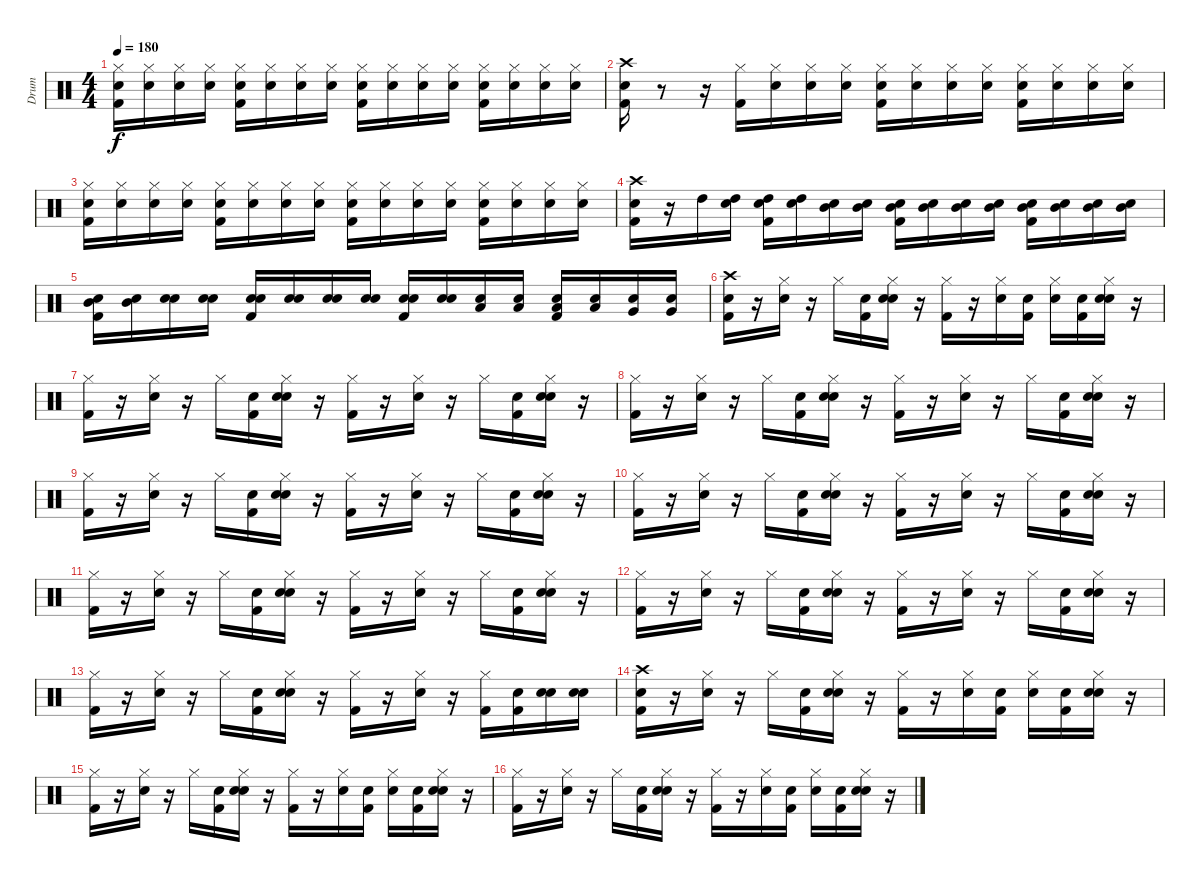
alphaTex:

\track ("Drum" "Drum") {instrument percussion}
\staff {score}
\articulation defaults
\ts (4 4)
\tempo 180
\clef neutral
\ks c
("Snare (hit)" "Kick (hit) 2" "Hi-Hat (closed)").16{dy f} ("Snare (hit)" "Hi-Hat (closed)").16 ("Snare (hit)" "Hi-Hat (closed)").16 ("Snare (hit)" "Hi-Hat (closed)").16 ("Snare (hit)" "Kick (hit) 2" "Hi-Hat (closed)").16 ("Snare (hit)" "Hi-Hat (closed)").16 ("Snare (hit)" "Hi-Hat (closed)").16 ("Snare (hit)" "Hi-Hat (closed)").16 ("Snare (hit)" "Kick (hit) 2" "Hi-Hat (closed)").16 ("Snare (hit)" "Hi-Hat (closed)").16 ("Snare (hit)" "Hi-Hat (closed)").16 ("Snare (hit)" "Hi-Hat (closed)").16 ("Snare (hit)" "Kick (hit) 2" "Hi-Hat (closed)").16 ("Snare (hit)" "Hi-Hat (closed)").16 ("Snare (hit)" "Hi-Hat (closed)").16 ("Snare (hit)" "Hi-Hat (closed)").16 |
("Snare (hit)" "Crash high (hit)" "Kick (hit) 2").16 r.8 r.16 ("Hi-Hat (closed)" "Kick (hit) 2").16 ("Snare (hit)" "Hi-Hat (closed)").16 ("Snare (hit)" "Hi-Hat (closed)").16 ("Snare (hit)" "Hi-Hat (closed)").16 ("Snare (hit)" "Hi-Hat (closed)" "Kick (hit) 2").16 ("Snare (hit)" "Hi-Hat (closed)").16 ("Snare (hit)" "Hi-Hat (closed)").16 ("Snare (hit)" "Hi-Hat (closed)").16 ("Snare (hit)" "Hi-Hat (closed)" "Kick (hit) 2").16 ("Snare (hit)" "Hi-Hat (closed)").16 ("Snare (hit)" "Hi-Hat (closed)").16 ("Snare (hit)" "Hi-Hat (closed)").16 |
("Snare (hit)" "Kick (hit) 2" "Hi-Hat (closed)").16 ("Snare (hit)" "Hi-Hat (closed)").16 ("Snare (hit)" "Hi-Hat (closed)").16 ("Snare (hit)" "Hi-Hat (closed)").16 ("Snare (hit)" "Kick (hit) 2" "Hi-Hat (closed)").16 ("Snare (hit)" "Hi-Hat (closed)").16 ("Snare (hit)" "Hi-Hat (closed)").16 ("Snare (hit)" "Hi-Hat (closed)").16 ("Snare (hit)" "Kick (hit) 2" "Hi-Hat (closed)").16 ("Snare (hit)" "Hi-Hat (closed)").16 ("Snare (hit)" "Hi-Hat (closed)").16 ("Snare (hit)" "Hi-Hat (closed)").16 ("Snare (hit)" "Kick (hit) 2" "Hi-Hat (closed)").16 ("Snare (hit)" "Hi-Hat (closed)").16 ("Snare (hit)" "Hi-Hat (closed)").16 ("Snare (hit)" "Hi-Hat (closed)").16 |
("Snare (hit)" "Crash high (hit)" "Kick (hit) 2").16 r.16 "High Tom (hit)".16 ("Snare (hit)" "High Tom (hit)").16 ("Snare (hit)" "High Tom (hit)" "Kick (hit) 2").16 ("Snare (hit)" "High Tom (hit)").16 ("Snare (hit)" "Mid Tom (hit)").16 ("Snare (hit)" "Mid Tom (hit)").16 ("Snare (hit)" "Mid Tom (hit)" "Kick (hit) 2").16 ("Snare (hit)" "Mid Tom (hit)").16 ("Snare (hit)" "Mid Tom (hit)").16 ("Snare (hit)" "Mid Tom (hit)").16 ("Snare (hit)" "Mid Tom (hit)" "Kick (hit) 2").16 ("Snare (hit)" "Mid Tom (hit)").16 ("Snare (hit)" "Mid Tom (hit)").16 ("Snare (hit)" "Mid Tom (hit)").16 |
("Snare (hit)" "Mid Tom (hit)" "Kick (hit) 2").16 ("Snare (hit)" "Mid Tom (hit)").16 ("Snare (hit)" "Snare (hit) 2").16 ("Snare (hit)" "Snare (hit) 2").16 ("Snare (hit)" "Snare (hit) 2" "Kick (hit) 2").16 ("Snare (hit)" "Snare (hit) 2").16 ("Snare (hit)" "Snare (hit) 2").16 ("Snare (hit)" "Snare (hit) 2").16 ("Snare (hit)" "Snare (hit) 2" "Kick (hit) 2").16 ("Snare (hit)" "Snare (hit) 2").16 ("Snare (hit)" "Low Tom (hit)").16 ("Snare (hit)" "Low Tom (hit)").16 ("Snare (hit)" "Low Tom (hit)" "Kick (hit) 2").16 ("Snare (hit)" "Low Tom (hit)").16 ("Snare (hit)" "Very Low Tom (hit)").16 ("Snare (hit)" "Very Low Tom (hit)").16 |
("Snare (hit)" "Kick (hit) 2" "Crash high (hit)").16 r.16 ("Snare (hit) 2" "Hi-Hat (closed)").16 r.16 "Hi-Hat (closed)".16 ("Snare (hit)" "Kick (hit) 2").16 ("Snare (hit)" "Snare (hit) 2" "Hi-Hat (closed)").16 r.16 ("Kick (hit) 2" "Hi-Hat (closed)").16 r.16 ("Snare (hit) 2" "Hi-Hat (closed)").16 ("Snare (hit)" "Kick (hit) 2").16 ("Snare (hit)" "Hi-Hat (closed)").16 ("Snare (hit)" "Kick (hit) 2").16 ("Snare (hit)" "Snare (hit) 2" "Hi-Hat (closed)").16 r.16 |
("Kick (hit) 2" "Hi-Hat (closed)").16 r.16 ("Snare (hit) 2" "Hi-Hat (closed)").16 r.16 "Hi-Hat (closed)".16 ("Snare (hit)" "Kick (hit) 2").16 ("Snare (hit)" "Snare (hit) 2" "Hi-Hat (closed)").16 r.16 ("Kick (hit) 2" "Hi-Hat (closed)").16 r.16 ("Snare (hit) 2" "Hi-Hat (closed)").16 r.16 "Hi-Hat (closed)".16 ("Snare (hit)" "Kick (hit) 2").16 ("Snare (hit)" "Snare (hit) 2" "Hi-Hat (closed)").16 r.16 |
("Kick (hit) 2" "Hi-Hat (closed)").16 r.16 ("Snare (hit) 2" "Hi-Hat (closed)").16 r.16 "Hi-Hat (closed)".16 ("Snare (hit)" "Kick (hit) 2").16 ("Snare (hit)" "Snare (hit) 2" "Hi-Hat (closed)").16 r.16 ("Kick (hit) 2" "Hi-Hat (closed)").16 r.16 ("Snare (hit) 2" "Hi-Hat (closed)").16 r.16 "Hi-Hat (closed)".16 ("Snare (hit)" "Kick (hit) 2").16 ("Snare (hit)" "Snare (hit) 2" "Hi-Hat (closed)").16 r.16 |
("Kick (hit) 2" "Hi-Hat (closed)").16 r.16 ("Snare (hit) 2" "Hi-Hat (closed)").16 r.16 "Hi-Hat (closed)".16 ("Snare (hit)" "Kick (hit) 2").16 ("Snare (hit)" "Snare (hit) 2" "Hi-Hat (closed)").16 r.16 ("Kick (hit) 2" "Hi-Hat (closed)").16 r.16 ("Snare (hit) 2" "Hi-Hat (closed)").16 r.16 "Hi-Hat (closed)".16 ("Snare (hit)" "Kick (hit) 2").16 ("Snare (hit)" "Snare (hit) 2" "Hi-Hat (closed)").16 r.16 |
("Kick (hit) 2" "Hi-Hat (closed)").16 r.16 ("Snare (hit) 2" "Hi-Hat (closed)").16 r.16 "Hi-Hat (closed)".16 ("Snare (hit)" "Kick (hit) 2").16 ("Snare (hit)" "Snare (hit) 2" "Hi-Hat (closed)").16 r.16 ("Kick (hit) 2" "Hi-Hat (closed)").16 r.16 ("Snare (hit) 2" "Hi-Hat (closed)").16 r.16 "Hi-Hat (closed)".16 ("Snare (hit)" "Kick (hit) 2").16 ("Snare (hit)" "Snare (hit) 2" "Hi-Hat (closed)").16 r.16 |
("Kick (hit) 2" "Hi-Hat (closed)").16 r.16 ("Snare (hit) 2" "Hi-Hat (closed)").16 r.16 "Hi-Hat (closed)".16 ("Snare (hit)" "Kick (hit) 2").16 ("Snare (hit)" "Snare (hit) 2" "Hi-Hat (closed)").16 r.16 ("Kick (hit) 2" "Hi-Hat (closed)").16 r.16 ("Snare (hit) 2" "Hi-Hat (closed)").16 r.16 "Hi-Hat (closed)".16 ("Snare (hit)" "Kick (hit) 2").16 ("Snare (hit)" "Snare (hit) 2" "Hi-Hat (closed)").16 r.16 |
("Kick (hit) 2" "Hi-Hat (closed)").16 r.16 ("Snare (hit) 2" "Hi-Hat (closed)").16 r.16 "Hi-Hat (closed)".16 ("Snare (hit)" "Kick (hit) 2").16 ("Snare (hit)" "Snare (hit) 2" "Hi-Hat (closed)").16 r.16 ("Kick (hit) 2" "Hi-Hat (closed)").16 r.16 ("Snare (hit) 2" "Hi-Hat (closed)").16 r.16 "Hi-Hat (closed)".16 ("Snare (hit)" "Kick (hit) 2").16 ("Snare (hit)" "Snare (hit) 2" "Hi-Hat (closed)").16 r.16 |
("Kick (hit) 2" "Hi-Hat (closed)").16 r.16 ("Snare (hit) 2" "Hi-Hat (closed)").16 r.16 "Hi-Hat (closed)".16 ("Snare (hit)" "Kick (hit) 2").16 ("Snare (hit)" "Snare (hit) 2" "Hi-Hat (closed)").16 r.16 ("Kick (hit) 2" "Hi-Hat (closed)").16 r.16 ("Snare (hit) 2" "Hi-Hat (closed)").16 r.16 ("Kick (hit) 2" "Hi-Hat (closed)").16 ("Snare (hit)" "Kick (hit) 2").16 ("Snare (hit)" "Snare (hit) 2").16 ("Snare (hit)" "Snare (hit) 2").16 |
("Snare (hit)" "Kick (hit) 2" "Crash high (hit)").16 r.16 ("Snare (hit) 2" "Hi-Hat (closed)").16 r.16 "Hi-Hat (closed)".16 ("Snare (hit)" "Kick (hit) 2").16 ("Snare (hit)" "Snare (hit) 2" "Hi-Hat (closed)").16 r.16 ("Kick (hit) 2" "Hi-Hat (closed)").16 r.16 ("Hi-Hat (closed)" "Snare (hit) 2").16 ("Snare (hit)" "Kick (hit) 2").16 ("Snare (hit)" "Hi-Hat (closed)").16 ("Snare (hit)" "Kick (hit) 2").16 ("Snare (hit)" "Snare (hit) 2" "Hi-Hat (closed)").16 r.16 |
("Kick (hit) 2" "Hi-Hat (closed)").16 r.16 ("Snare (hit) 2" "Hi-Hat (closed)").16 r.16 "Hi-Hat (closed)".16 ("Snare (hit)" "Kick (hit) 2").16 ("Snare (hit)" "Snare (hit) 2" "Hi-Hat (closed)").16 r.16 ("Kick (hit) 2" "Hi-Hat (closed)").16 r.16 ("Snare (hit) 2" "Hi-Hat (closed)").16 ("Snare (hit)" "Kick (hit) 2").16 ("Snare (hit)" "Hi-Hat (closed)").16 ("Snare (hit)" "Kick (hit) 2").16 ("Snare (hit)" "Snare (hit) 2" "Hi-Hat (closed)").16 r.16 |
("Kick (hit) 2" "Hi-Hat (closed)").16 r.16 ("Snare (hit) 2" "Hi-Hat (closed)").16 r.16 "Hi-Hat (closed)".16 ("Snare (hit)" "Kick (hit) 2").16 ("Snare (hit)" "Snare (hit) 2" "Hi-Hat (closed)").16 r.16 ("Kick (hit) 2" "Hi-Hat (closed)").16 r.16 ("Snare (hit) 2" "Hi-Hat (closed)").16 ("Snare (hit)" "Kick (hit) 2").16 ("Snare (hit)" "Hi-Hat (closed)").16 ("Snare (hit)" "Kick (hit) 2").16 ("Snare (hit)" "Snare (hit) 2" "Hi-Hat (closed)").16 r.16
